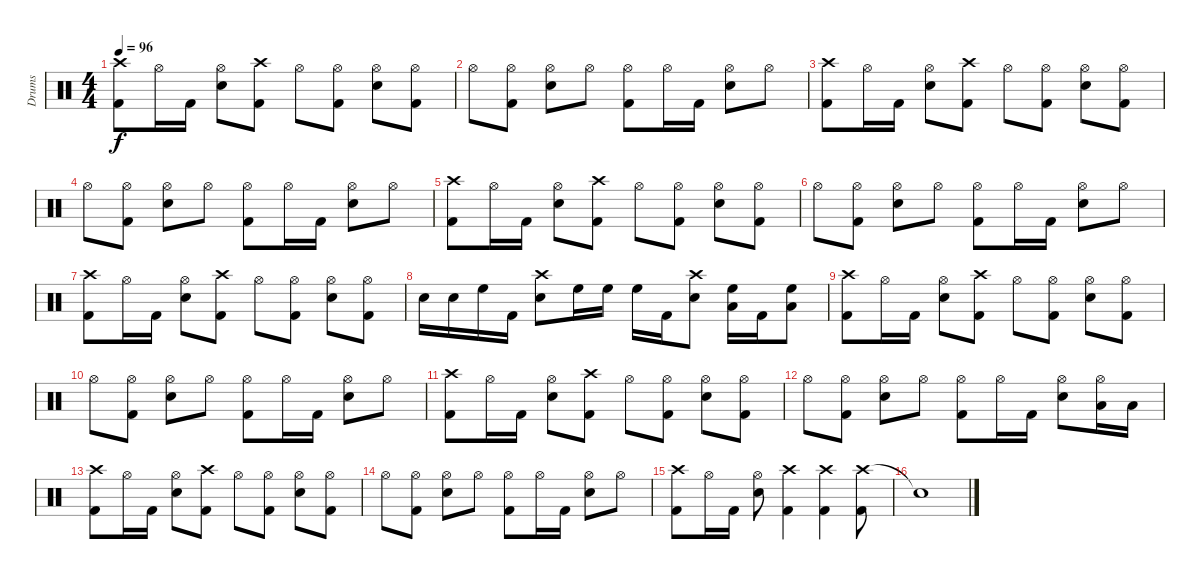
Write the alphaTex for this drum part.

\track ("Drums" "Drums") {instrument percussion}
\staff {score}
\articulation defaults
\ts (4 4)
\tempo 96
\clef neutral
\ks c
("Crash high (hit)" "Kick (hit) 2").8{dy f} "Hi-Hat (open)".16 "Kick (hit) 2".16 ("Hi-Hat (open)" "Snare (hit) 2").8 ("Crash high (hit)" "Kick (hit) 2").8 "Hi-Hat (open)".8 ("Hi-Hat (open)" "Kick (hit) 2").8 ("Hi-Hat (open)" "Snare (hit) 2").8 ("Hi-Hat (open)" "Kick (hit) 2").8 |
"Hi-Hat (open)".8 ("Hi-Hat (open)" "Kick (hit) 2").8 ("Hi-Hat (open)" "Snare (hit) 2").8 "Hi-Hat (open)".8 ("Hi-Hat (open)" "Kick (hit) 2").8 "Hi-Hat (open)".16 "Kick (hit) 2".16 ("Hi-Hat (open)" "Snare (hit) 2").8 "Hi-Hat (open)".8 |
("Crash high (hit)" "Kick (hit) 2").8 "Hi-Hat (open)".16 "Kick (hit) 2".16 ("Hi-Hat (open)" "Snare (hit) 2").8 ("Crash high (hit)" "Kick (hit) 2").8 "Hi-Hat (open)".8 ("Hi-Hat (open)" "Kick (hit) 2").8 ("Hi-Hat (open)" "Snare (hit) 2").8 ("Hi-Hat (open)" "Kick (hit) 2").8 |
"Hi-Hat (open)".8 ("Hi-Hat (open)" "Kick (hit) 2").8 ("Hi-Hat (open)" "Snare (hit) 2").8 "Hi-Hat (open)".8 ("Hi-Hat (open)" "Kick (hit) 2").8 "Hi-Hat (open)".16 "Kick (hit) 2".16 ("Hi-Hat (open)" "Snare (hit) 2").8 "Hi-Hat (open)".8 |
("Crash high (hit)" "Kick (hit) 2").8 "Hi-Hat (open)".16 "Kick (hit) 2".16 ("Hi-Hat (open)" "Snare (hit) 2").8 ("Crash high (hit)" "Kick (hit) 2").8 "Hi-Hat (open)".8 ("Hi-Hat (open)" "Kick (hit) 2").8 ("Hi-Hat (open)" "Snare (hit) 2").8 ("Hi-Hat (open)" "Kick (hit) 2").8 |
"Hi-Hat (open)".8 ("Hi-Hat (open)" "Kick (hit) 2").8 ("Hi-Hat (open)" "Snare (hit) 2").8 "Hi-Hat (open)".8 ("Hi-Hat (open)" "Kick (hit) 2").8 "Hi-Hat (open)".16 "Kick (hit) 2".16 ("Hi-Hat (open)" "Snare (hit) 2").8 "Hi-Hat (open)".8 |
("Crash high (hit)" "Kick (hit) 2").8 "Hi-Hat (open)".16 "Kick (hit) 2".16 ("Hi-Hat (open)" "Snare (hit) 2").8 ("Crash high (hit)" "Kick (hit) 2").8 "Hi-Hat (open)".8 ("Hi-Hat (open)" "Kick (hit) 2").8 ("Hi-Hat (open)" "Snare (hit) 2").8 ("Hi-Hat (open)" "Kick (hit) 2").8 |
"Snare (hit) 2".16 "Snare (hit) 2".16 "High Floor Tom (hit)".16 "Kick (hit) 2".16 ("Crash high (hit)" "Snare (hit) 2").8 "High Floor Tom (hit)".16 "High Floor Tom (hit)".16 "High Floor Tom (hit)".16 "Kick (hit) 2".16 ("Crash high (hit)" "Snare (hit) 2").8 ("High Floor Tom (hit)" "Low Tom (hit)").16 "Kick (hit) 2".16 ("High Floor Tom (hit)" "Low Tom (hit)").8 |
("Crash high (hit)" "Kick (hit) 2").8 "Hi-Hat (open)".16 "Kick (hit) 2".16 ("Hi-Hat (open)" "Snare (hit) 2").8 ("Crash high (hit)" "Kick (hit) 2").8 "Hi-Hat (open)".8 ("Hi-Hat (open)" "Kick (hit) 2").8 ("Hi-Hat (open)" "Snare (hit) 2").8 ("Hi-Hat (open)" "Kick (hit) 2").8 |
"Hi-Hat (open)".8 ("Hi-Hat (open)" "Kick (hit) 2").8 ("Hi-Hat (open)" "Snare (hit) 2").8 "Hi-Hat (open)".8 ("Hi-Hat (open)" "Kick (hit) 2").8 "Hi-Hat (open)".16 "Kick (hit) 2".16 ("Hi-Hat (open)" "Snare (hit) 2").8 "Hi-Hat (open)".8 |
("Crash high (hit)" "Kick (hit) 2").8 "Hi-Hat (open)".16 "Kick (hit) 2".16 ("Hi-Hat (open)" "Snare (hit) 2").8 ("Crash high (hit)" "Kick (hit) 2").8 "Hi-Hat (open)".8 ("Hi-Hat (open)" "Kick (hit) 2").8 ("Hi-Hat (open)" "Snare (hit) 2").8 ("Hi-Hat (open)" "Kick (hit) 2").8 |
"Hi-Hat (open)".8 ("Hi-Hat (open)" "Kick (hit) 2").8 ("Hi-Hat (open)" "Snare (hit) 2").8 "Hi-Hat (open)".8 ("Hi-Hat (open)" "Kick (hit) 2").8 "Hi-Hat (open)".16 "Kick (hit) 2".16 ("Hi-Hat (open)" "Snare (hit) 2").8 ("Hi-Hat (open)" "Low Tom (hit)").16 "Low Tom (hit)".16 |
("Crash high (hit)" "Kick (hit) 2").8 "Hi-Hat (open)".16 "Kick (hit) 2".16 ("Hi-Hat (open)" "Snare (hit) 2").8 ("Crash high (hit)" "Kick (hit) 2").8 "Hi-Hat (open)".8 ("Hi-Hat (open)" "Kick (hit) 2").8 ("Hi-Hat (open)" "Snare (hit) 2").8 ("Hi-Hat (open)" "Kick (hit) 2").8 |
"Hi-Hat (open)".8 ("Hi-Hat (open)" "Kick (hit) 2").8 ("Hi-Hat (open)" "Snare (hit) 2").8 "Hi-Hat (open)".8 ("Hi-Hat (open)" "Kick (hit) 2").8 "Hi-Hat (open)".16 "Kick (hit) 2".16 ("Hi-Hat (open)" "Snare (hit) 2").8 "Hi-Hat (open)".8 |
("Crash high (hit)" "Kick (hit) 2").8 "Hi-Hat (open)".16 "Kick (hit) 2".16 ("Hi-Hat (open)" "Snare (hit) 2").8 ("Crash high (hit)" "Kick (hit) 2").4 ("Crash high (hit)" "Kick (hit) 2").4 ("Crash high (hit)" "Kick (hit) 2").8 |
"Snare (hit)"{t}.1
